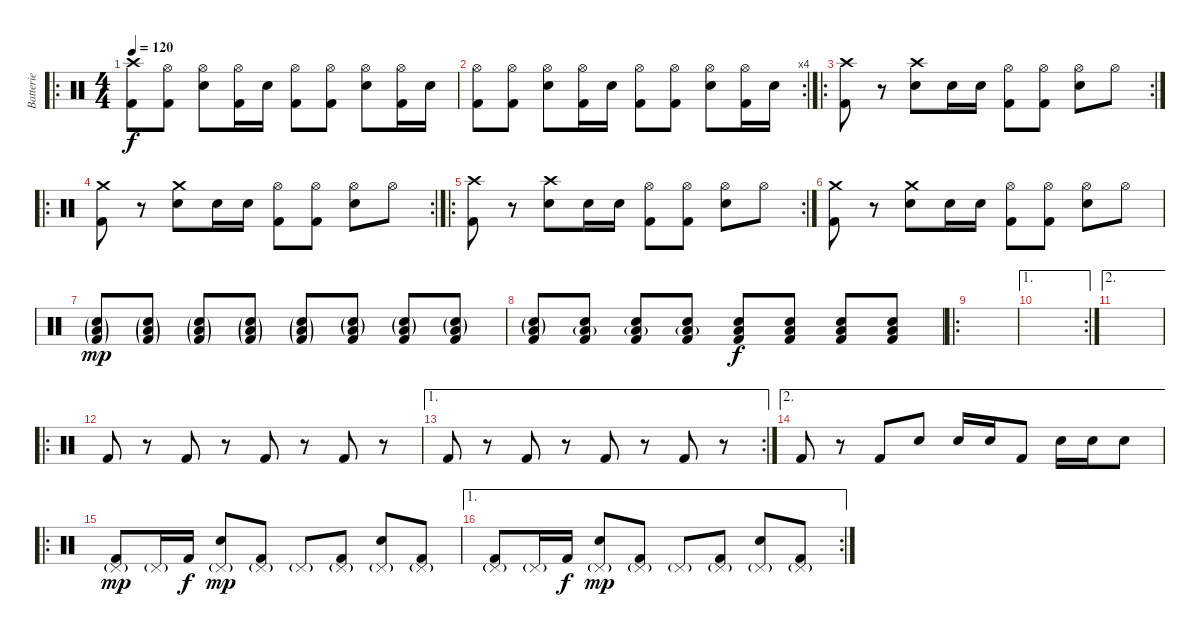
\track ("Batterie" "Batterie") {instrument percussion}
\staff {score}
\articulation defaults
\ro
\ts (4 4)
\tempo 120
\clef neutral
\ks c
("Crash high (hit)" "Kick (hit) 2").8{dy f} ("Hi-Hat (open)" "Kick (hit) 2").8 ("Hi-Hat (open)" "Snare (hit) 2").8 ("Hi-Hat (open)" "Kick (hit) 2").16 "Snare (hit) 2".16 ("Hi-Hat (open)" "Kick (hit) 2").8 ("Hi-Hat (open)" "Kick (hit) 2").8 ("Hi-Hat (open)" "Snare (hit) 2").8 ("Hi-Hat (open)" "Kick (hit) 2").16 "Snare (hit) 2".16 |
\rc 4
("Hi-Hat (open)" "Kick (hit) 2").8 ("Hi-Hat (open)" "Kick (hit) 2").8 ("Hi-Hat (open)" "Snare (hit) 2").8 ("Hi-Hat (open)" "Kick (hit) 2").16 "Snare (hit) 2".16 ("Hi-Hat (open)" "Kick (hit) 2").8 ("Hi-Hat (open)" "Kick (hit) 2").8 ("Hi-Hat (open)" "Snare (hit) 2").8 ("Hi-Hat (open)" "Kick (hit) 2").16 "Snare (hit) 2".16 |
\ro
\rc 2
("Crash high (hit)" "Kick (hit) 2").8 r.8 ("Crash high (hit)" "Snare (hit) 2").8 "Snare (hit) 2".16 "Snare (hit) 2".16 ("Hi-Hat (open)" "Kick (hit) 2").8 ("Hi-Hat (open)" "Kick (hit) 2").8 ("Hi-Hat (open)" "Snare (hit) 2").8 "Hi-Hat (open)".8 |
\ro
\rc 2
("Crash medium (hit)" "Kick (hit) 2").8 r.8 ("Crash medium (hit)" "Snare (hit) 2").8 "Snare (hit) 2".16 "Snare (hit) 2".16 ("Hi-Hat (open)" "Kick (hit) 2").8 ("Hi-Hat (open)" "Kick (hit) 2").8 ("Hi-Hat (open)" "Snare (hit) 2").8 "Hi-Hat (open)".8 |
\ro
\rc 2
("Crash high (hit)" "Kick (hit) 2").8 r.8 ("Crash high (hit)" "Snare (hit) 2").8 "Snare (hit) 2".16 "Snare (hit) 2".16 ("Hi-Hat (open)" "Kick (hit) 2").8 ("Hi-Hat (open)" "Kick (hit) 2").8 ("Hi-Hat (open)" "Snare (hit) 2").8 "Hi-Hat (open)".8 |
("Crash medium (hit)" "Kick (hit) 2").8 r.8 ("Crash medium (hit)" "Snare (hit) 2").8 "Snare (hit) 2".16 "Snare (hit) 2".16 ("Hi-Hat (open)" "Kick (hit) 2").8 ("Hi-Hat (open)" "Kick (hit) 2").8 ("Hi-Hat (open)" "Snare (hit) 2").8 "Hi-Hat (open)".8 |
("Low Tom (hit)"{g} "Snare (hit) 2"{g} "Kick (hit) 2"{g}).8{dy mp} ("Low Tom (hit)"{g} "Snare (hit) 2"{g} "Kick (hit) 2"{g}).8 ("Low Tom (hit)"{g} "Snare (hit) 2"{g} "Kick (hit) 2"{g}).8 ("Low Tom (hit)"{g} "Snare (hit) 2"{g} "Kick (hit) 2"{g}).8 ("Low Tom (hit)"{g} "Snare (hit) 2"{g} "Kick (hit) 2"{g}).8 ("Low Tom (hit)"{g} "Snare (hit) 2"{g} "Kick (hit) 2").8 ("Low Tom (hit)"{g} "Snare (hit) 2"{g} "Kick (hit) 2").8 ("Low Tom (hit)"{g} "Snare (hit) 2"{g} "Kick (hit) 2").8 |
("Low Tom (hit)"{g} "Snare (hit) 2"{g} "Kick (hit) 2").8 ("Low Tom (hit)"{g} "Snare (hit) 2" "Kick (hit) 2").8 ("Low Tom (hit)"{g} "Snare (hit) 2" "Kick (hit) 2").8 ("Low Tom (hit)"{g} "Snare (hit) 2" "Kick (hit) 2").8 ("Low Tom (hit)" "Snare (hit) 2" "Kick (hit) 2").8{dy f} ("Low Tom (hit)" "Snare (hit) 2" "Kick (hit) 2").8 ("Low Tom (hit)" "Snare (hit) 2" "Kick (hit) 2").8 ("Low Tom (hit)" "Snare (hit) 2" "Kick (hit) 2").8 |
\ro
|
\ae 1
\rc 2
|
\ae 2
|
\ro "Kick (hit) 2".8
r.8 "Kick (hit) 2".8 r.8 "Kick (hit) 2".8 r.8 "Kick (hit) 2".8 r.8 |
\ae 1
\rc 2 "Kick (hit) 2".8
r.8 "Kick (hit) 2".8 r.8 "Kick (hit) 2".8 r.8 "Kick (hit) 2".8 r.8 |
\ae 2 "Kick (hit) 2".8
r.8 "Kick (hit) 2".8 "Snare (hit) 2".8 "Snare (hit) 2".16 "Snare (hit) 2".16 "Kick (hit) 2".8 "Snare (hit) 2".16 "Snare (hit) 2".16 "Snare (hit) 2".8 |
\ro
("Pedal Hi-Hat (hit)"{g} "Kick (hit) 2").8{dy mp} "Pedal Hi-Hat (hit)"{g}.16 "Kick (hit) 2".16{dy f} ("Pedal Hi-Hat (hit)"{g} "Snare (hit) 2").8{dy mp} ("Pedal Hi-Hat (hit)"{g} "Kick (hit) 2").8 "Pedal Hi-Hat (hit)"{g}.8 ("Pedal Hi-Hat (hit)"{g} "Kick (hit) 2").8 ("Pedal Hi-Hat (hit)"{g} "Snare (hit) 2").8 ("Pedal Hi-Hat (hit)"{g} "Kick (hit) 2").8 |
\ae 1
\rc 2
("Pedal Hi-Hat (hit)"{g} "Kick (hit) 2").8 "Pedal Hi-Hat (hit)"{g}.16 "Kick (hit) 2".16{dy f} ("Pedal Hi-Hat (hit)"{g} "Snare (hit) 2").8{dy mp} ("Pedal Hi-Hat (hit)"{g} "Kick (hit) 2").8 "Pedal Hi-Hat (hit)"{g}.8 ("Pedal Hi-Hat (hit)"{g} "Kick (hit) 2").8 ("Pedal Hi-Hat (hit)"{g} "Snare (hit) 2").8 ("Pedal Hi-Hat (hit)"{g} "Kick (hit) 2").8
